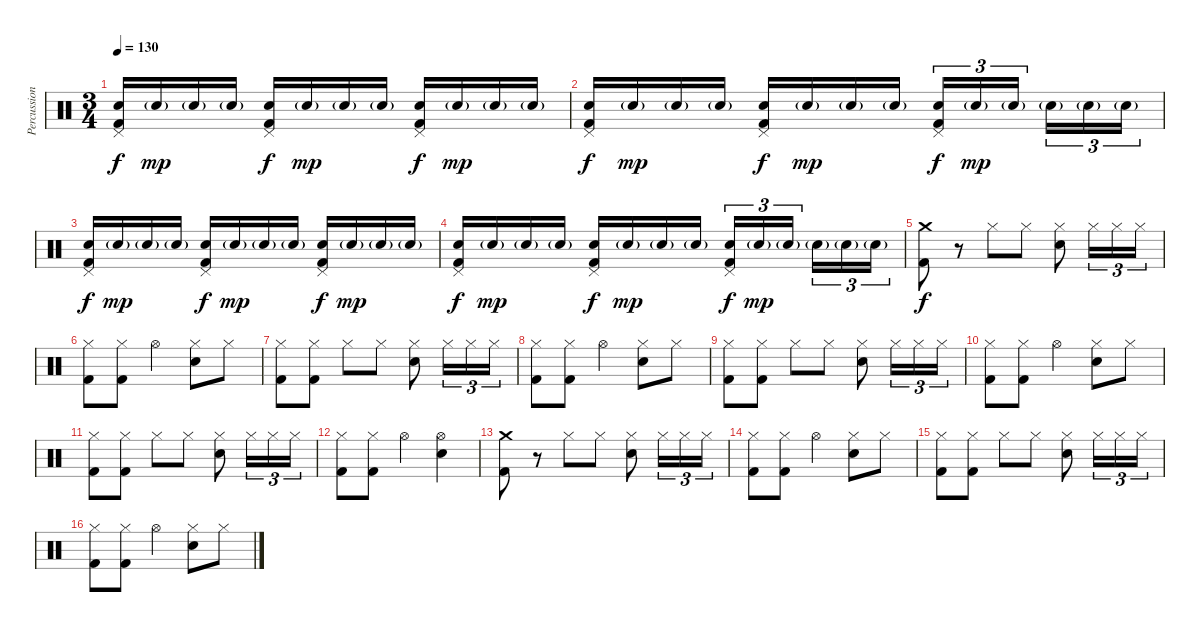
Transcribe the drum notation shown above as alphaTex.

\track ("Percussion" "Percussion") {instrument percussion}
\staff {score}
\articulation defaults
\ts (3 4)
\tempo 130
\clef neutral
\ks c
("Pedal Hi-Hat (hit)" "Electric Snare (hit)" "Kick (hit) 2").16{dy f volume 11} "Electric Snare (hit)"{g}.16{dy mp} "Electric Snare (hit)"{g}.16 "Electric Snare (hit)"{g}.16 ("Pedal Hi-Hat (hit)" "Electric Snare (hit)" "Kick (hit) 2").16{dy f} "Electric Snare (hit)"{g}.16{dy mp} "Electric Snare (hit)"{g}.16 "Electric Snare (hit)"{g}.16 ("Pedal Hi-Hat (hit)" "Electric Snare (hit)" "Kick (hit) 2").16{dy f} "Electric Snare (hit)"{g}.16{dy mp} "Electric Snare (hit)"{g}.16 "Electric Snare (hit)"{g}.16 |
("Pedal Hi-Hat (hit)" "Electric Snare (hit)" "Kick (hit) 2").16{dy f} "Electric Snare (hit)"{g}.16{dy mp} "Electric Snare (hit)"{g}.16 "Electric Snare (hit)"{g}.16 ("Pedal Hi-Hat (hit)" "Electric Snare (hit)" "Kick (hit) 2").16{dy f} "Electric Snare (hit)"{g}.16{dy mp} "Electric Snare (hit)"{g}.16 "Electric Snare (hit)"{g}.16 ("Pedal Hi-Hat (hit)" "Electric Snare (hit)" "Kick (hit) 2").16{tu (3 2) dy f} "Electric Snare (hit)"{g}.16{tu (3 2) dy mp} "Electric Snare (hit)"{g}.16{tu (3 2)} "Electric Snare (hit)"{g}.16{tu (3 2)} "Electric Snare (hit)"{g}.16{tu (3 2)} "Electric Snare (hit)"{g}.16{tu (3 2)} |
("Pedal Hi-Hat (hit)" "Electric Snare (hit)" "Kick (hit) 2").16{dy f volume 11} "Electric Snare (hit)"{g}.16{dy mp} "Electric Snare (hit)"{g}.16 "Electric Snare (hit)"{g}.16 ("Pedal Hi-Hat (hit)" "Electric Snare (hit)" "Kick (hit) 2").16{dy f} "Electric Snare (hit)"{g}.16{dy mp} "Electric Snare (hit)"{g}.16 "Electric Snare (hit)"{g}.16 ("Pedal Hi-Hat (hit)" "Electric Snare (hit)" "Kick (hit) 2").16{dy f} "Electric Snare (hit)"{g}.16{dy mp} "Electric Snare (hit)"{g}.16 "Electric Snare (hit)"{g}.16 |
("Pedal Hi-Hat (hit)" "Electric Snare (hit)" "Kick (hit) 2").16{dy f} "Electric Snare (hit)"{g}.16{dy mp} "Electric Snare (hit)"{g}.16 "Electric Snare (hit)"{g}.16 ("Pedal Hi-Hat (hit)" "Electric Snare (hit)" "Kick (hit) 2").16{dy f} "Electric Snare (hit)"{g}.16{dy mp} "Electric Snare (hit)"{g}.16 "Electric Snare (hit)"{g}.16 ("Pedal Hi-Hat (hit)" "Electric Snare (hit)" "Kick (hit) 2").16{tu (3 2) dy f} "Electric Snare (hit)"{g}.16{tu (3 2) dy mp} "Electric Snare (hit)"{g}.16{tu (3 2)} "Electric Snare (hit)"{g}.16{tu (3 2)} "Electric Snare (hit)"{g}.16{tu (3 2)} "Electric Snare (hit)"{g}.16{tu (3 2)} |
("Crash medium (hit)" "Kick (hit) 2").8{dy f} r.8 "Hi-Hat (closed)".8 "Hi-Hat (closed)".8 ("Hi-Hat (closed)" "Electric Snare (hit)").8 "Hi-Hat (closed)".16{tu (3 2)} "Hi-Hat (closed)".16{tu (3 2)} "Hi-Hat (closed)".16{tu (3 2)} |
("Hi-Hat (closed)" "Kick (hit) 2").8 ("Hi-Hat (closed)" "Kick (hit) 2").8 "Hi-Hat (open)".4 ("Hi-Hat (closed)" "Electric Snare (hit)").8 "Hi-Hat (closed)".8 |
("Hi-Hat (closed)" "Kick (hit) 2").8 ("Hi-Hat (closed)" "Kick (hit) 2").8 "Hi-Hat (closed)".8 "Hi-Hat (closed)".8 ("Hi-Hat (closed)" "Electric Snare (hit)").8 "Hi-Hat (closed)".16{tu (3 2)} "Hi-Hat (closed)".16{tu (3 2)} "Hi-Hat (closed)".16{tu (3 2)} |
("Hi-Hat (closed)" "Kick (hit) 2").8 ("Hi-Hat (closed)" "Kick (hit) 2").8 "Hi-Hat (open)".4 ("Hi-Hat (closed)" "Electric Snare (hit)").8 "Hi-Hat (closed)".8 |
("Hi-Hat (closed)" "Kick (hit) 2").8 ("Hi-Hat (closed)" "Kick (hit) 2").8 "Hi-Hat (closed)".8 "Hi-Hat (closed)".8 ("Hi-Hat (closed)" "Electric Snare (hit)").8 "Hi-Hat (closed)".16{tu (3 2)} "Hi-Hat (closed)".16{tu (3 2)} "Hi-Hat (closed)".16{tu (3 2)} |
("Hi-Hat (closed)" "Kick (hit) 2").8 ("Hi-Hat (closed)" "Kick (hit) 2").8 "Hi-Hat (open)".4 ("Hi-Hat (closed)" "Electric Snare (hit)").8 "Hi-Hat (closed)".8 |
("Hi-Hat (closed)" "Kick (hit) 2").8 ("Hi-Hat (closed)" "Kick (hit) 2").8 "Hi-Hat (closed)".8 "Hi-Hat (closed)".8 ("Hi-Hat (closed)" "Electric Snare (hit)").8 "Hi-Hat (closed)".16{tu (3 2)} "Hi-Hat (closed)".16{tu (3 2)} "Hi-Hat (closed)".16{tu (3 2)} |
("Hi-Hat (closed)" "Kick (hit) 2").8 ("Hi-Hat (closed)" "Kick (hit) 2").8 "Hi-Hat (open)".4 ("Hi-Hat (open)" "Electric Snare (hit)").4 |
("Crash medium (hit)" "Kick (hit) 2").8 r.8 "Hi-Hat (closed)".8 "Hi-Hat (closed)".8 ("Hi-Hat (closed)" "Electric Snare (hit)").8 "Hi-Hat (closed)".16{tu (3 2)} "Hi-Hat (closed)".16{tu (3 2)} "Hi-Hat (closed)".16{tu (3 2)} |
("Hi-Hat (closed)" "Kick (hit) 2").8 ("Hi-Hat (closed)" "Kick (hit) 2").8 "Hi-Hat (open)".4 ("Hi-Hat (closed)" "Electric Snare (hit)").8 "Hi-Hat (closed)".8 |
("Hi-Hat (closed)" "Kick (hit) 2").8 ("Hi-Hat (closed)" "Kick (hit) 2").8 "Hi-Hat (closed)".8 "Hi-Hat (closed)".8 ("Hi-Hat (closed)" "Electric Snare (hit)").8 "Hi-Hat (closed)".16{tu (3 2)} "Hi-Hat (closed)".16{tu (3 2)} "Hi-Hat (closed)".16{tu (3 2)} |
("Hi-Hat (closed)" "Kick (hit) 2").8 ("Hi-Hat (closed)" "Kick (hit) 2").8 "Hi-Hat (open)".4 ("Hi-Hat (closed)" "Electric Snare (hit)").8 "Hi-Hat (closed)".8
